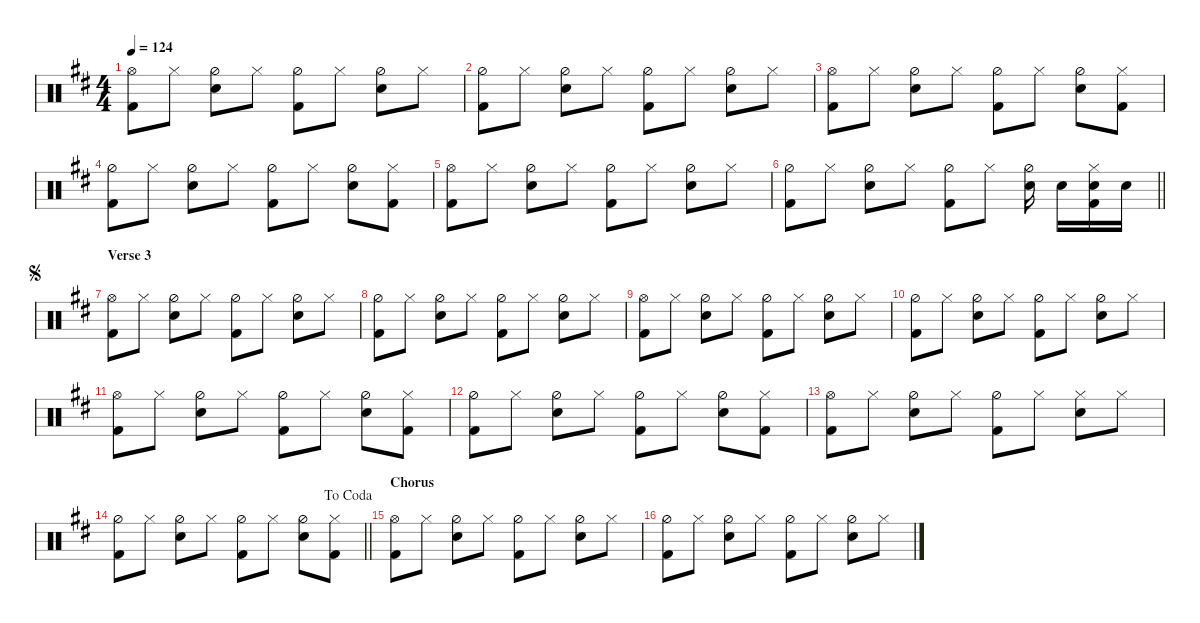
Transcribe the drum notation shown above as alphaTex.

\hideDynamics
\bracketExtendMode nobrackets
\singleTrackTrackNamePolicy hidden
\multiTrackTrackNamePolicy hidden
\otherSystemsTrackNameOrientation horizontal
\track ("Drumkit" "Drums") {instrument percussion}
\staff {score}
\articulation defaults
\ts (4 4)
\tempo 124
\clef neutral
\ks bminor
("Kick (hit) 2"{acc forcenatural} "Hi-Hat (open)"{acc forcenatural}).8{dy f beam Down} "Hi-Hat (closed)"{acc forcenatural}.8{beam Down} ("Hi-Hat (half)"{acc forcenatural} "Snare (hit) 2"{acc forcenatural}).8{beam Down} "Hi-Hat (closed)"{acc forcenatural}.8{beam Down} ("Hi-Hat (half)"{acc forcenatural} "Kick (hit) 2"{acc forcenatural}).8{beam Down} "Hi-Hat (closed)"{acc forcenatural}.8{beam Down} ("Snare (hit) 2"{acc forcenatural} "Hi-Hat (half)"{acc forcenatural}).8{beam Down} "Hi-Hat (closed)"{acc forcenatural}.8{beam Down} |
("Kick (hit) 2"{acc forcenatural} "Hi-Hat (half)"{acc forcenatural}).8{beam Down} "Hi-Hat (closed)"{acc forcenatural}.8{beam Down} ("Hi-Hat (half)"{acc forcenatural} "Snare (hit) 2"{acc forcenatural}).8{beam Down} "Hi-Hat (closed)"{acc forcenatural}.8{beam Down} ("Hi-Hat (half)"{acc forcenatural} "Kick (hit) 2"{acc forcenatural}).8{beam Down} "Hi-Hat (closed)"{acc forcenatural}.8{beam Down} ("Hi-Hat (half)"{acc forcenatural} "Snare (hit) 2"{acc forcenatural}).8{beam Down} "Hi-Hat (closed)"{acc forcenatural}.8{beam Down} |
("Kick (hit) 2"{acc forcenatural} "Hi-Hat (open)"{acc forcenatural}).8{beam Down} "Hi-Hat (closed)"{acc forcenatural}.8{beam Down} ("Hi-Hat (half)"{acc forcenatural} "Snare (hit) 2"{acc forcenatural}).8{beam Down} "Hi-Hat (closed)"{acc forcenatural}.8{beam Down} ("Hi-Hat (half)"{acc forcenatural} "Kick (hit) 2"{acc forcenatural}).8{beam Down} "Hi-Hat (closed)"{acc forcenatural}.8{beam Down} ("Hi-Hat (half)"{acc forcenatural} "Snare (hit) 2"{acc forcenatural}).8{beam Down} ("Hi-Hat (closed)"{acc forcenatural} "Kick (hit) 2"{acc forcenatural}).8{beam Down} |
("Kick (hit) 2"{acc forcenatural} "Hi-Hat (half)"{acc forcenatural}).8{beam Down} "Hi-Hat (closed)"{acc forcenatural}.8{beam Down} ("Hi-Hat (half)"{acc forcenatural} "Snare (hit) 2"{acc forcenatural}).8{beam Down} "Hi-Hat (closed)"{acc forcenatural}.8{beam Down} ("Hi-Hat (half)"{acc forcenatural} "Kick (hit) 2"{acc forcenatural}).8{beam Down} "Hi-Hat (closed)"{acc forcenatural}.8{beam Down} ("Hi-Hat (half)"{acc forcenatural} "Snare (hit) 2"{acc forcenatural}).8{beam Down} ("Hi-Hat (closed)"{acc forcenatural} "Kick (hit) 2"{acc forcenatural}).8{beam Down} |
("Kick (hit) 2"{acc forcenatural} "Hi-Hat (open)"{acc forcenatural}).8{beam Down} "Hi-Hat (closed)"{acc forcenatural}.8{beam Down} ("Hi-Hat (half)"{acc forcenatural} "Snare (hit) 2"{acc forcenatural}).8{beam Down} "Hi-Hat (closed)"{acc forcenatural}.8{beam Down} ("Hi-Hat (half)"{acc forcenatural} "Kick (hit) 2"{acc forcenatural}).8{beam Down} "Hi-Hat (closed)"{acc forcenatural}.8{beam Down} ("Hi-Hat (half)"{acc forcenatural} "Snare (hit) 2"{acc forcenatural}).8{beam Down} "Hi-Hat (closed)"{acc forcenatural}.8{beam Down} |
\barLineRight lightlight
("Kick (hit) 2"{acc forcenatural} "Hi-Hat (half)"{acc forcenatural}).8{beam Down} "Hi-Hat (closed)"{acc forcenatural}.8{beam Down} ("Hi-Hat (half)"{acc forcenatural} "Snare (hit) 2"{acc forcenatural}).8{beam Down} "Hi-Hat (closed)"{acc forcenatural}.8{beam Down} ("Hi-Hat (half)"{acc forcenatural} "Kick (hit) 2"{acc forcenatural}).8{beam Down} "Hi-Hat (closed)"{acc forcenatural}.8{beam Down} ("Snare (hit) 2"{acc forcenatural} "Hi-Hat (half)"{acc forcenatural}).16{beam Down beam split} "Snare (hit) 2"{acc forcenatural}.16{beam Down} ("Hi-Hat (closed)"{acc forcenatural} "Snare (hit) 2"{acc forcenatural} "Kick (hit) 2"{acc forcenatural}).16{beam Down} "Snare (hit) 2"{acc forcenatural}.16{beam Down} |
\section ("" "Verse 3")
\jump segno
("Kick (hit) 2"{acc forcenatural} "Hi-Hat (open)"{acc forcenatural}).8{beam Down} "Hi-Hat (closed)"{acc forcenatural}.8{beam Down} ("Hi-Hat (half)"{acc forcenatural} "Snare (hit) 2"{acc forcenatural}).8{beam Down} "Hi-Hat (closed)"{acc forcenatural}.8{beam Down} ("Hi-Hat (half)"{acc forcenatural} "Kick (hit) 2"{acc forcenatural}).8{beam Down} "Hi-Hat (closed)"{acc forcenatural}.8{beam Down} ("Hi-Hat (half)"{acc forcenatural} "Snare (hit) 2"{acc forcenatural}).8{beam Down} "Hi-Hat (closed)"{acc forcenatural}.8{beam Down} |
("Kick (hit) 2"{acc forcenatural} "Hi-Hat (half)"{acc forcenatural}).8{beam Down} "Hi-Hat (closed)"{acc forcenatural}.8{beam Down} ("Hi-Hat (half)"{acc forcenatural} "Snare (hit) 2"{acc forcenatural}).8{beam Down} "Hi-Hat (closed)"{acc forcenatural}.8{beam Down} ("Hi-Hat (half)"{acc forcenatural} "Kick (hit) 2"{acc forcenatural}).8{beam Down} "Hi-Hat (closed)"{acc forcenatural}.8{beam Down} ("Hi-Hat (half)"{acc forcenatural} "Snare (hit) 2"{acc forcenatural}).8{beam Down} "Hi-Hat (closed)"{acc forcenatural}.8{beam Down} |
("Kick (hit) 2"{acc forcenatural} "Hi-Hat (open)"{acc forcenatural}).8{beam Down} "Hi-Hat (closed)"{acc forcenatural}.8{beam Down} ("Hi-Hat (half)"{acc forcenatural} "Snare (hit) 2"{acc forcenatural}).8{beam Down} "Hi-Hat (closed)"{acc forcenatural}.8{beam Down} ("Hi-Hat (half)"{acc forcenatural} "Kick (hit) 2"{acc forcenatural}).8{beam Down} "Hi-Hat (closed)"{acc forcenatural}.8{beam Down} ("Hi-Hat (half)"{acc forcenatural} "Snare (hit) 2"{acc forcenatural}).8{beam Down} "Hi-Hat (closed)"{acc forcenatural}.8{beam Down} |
("Kick (hit) 2"{acc forcenatural} "Hi-Hat (half)"{acc forcenatural}).8{beam Down} "Hi-Hat (closed)"{acc forcenatural}.8{beam Down} ("Hi-Hat (half)"{acc forcenatural} "Snare (hit) 2"{acc forcenatural}).8{beam Down} "Hi-Hat (closed)"{acc forcenatural}.8{beam Down} ("Hi-Hat (half)"{acc forcenatural} "Kick (hit) 2"{acc forcenatural}).8{beam Down} "Hi-Hat (closed)"{acc forcenatural}.8{beam Down} ("Hi-Hat (half)"{acc forcenatural} "Snare (hit) 2"{acc forcenatural}).8{beam Down} "Hi-Hat (closed)"{acc forcenatural}.8{beam Down} |
("Kick (hit) 2"{acc forcenatural} "Hi-Hat (open)"{acc forcenatural}).8{beam Down} "Hi-Hat (closed)"{acc forcenatural}.8{beam Down} ("Hi-Hat (half)"{acc forcenatural} "Snare (hit) 2"{acc forcenatural}).8{beam Down} "Hi-Hat (closed)"{acc forcenatural}.8{beam Down} ("Hi-Hat (half)"{acc forcenatural} "Kick (hit) 2"{acc forcenatural}).8{beam Down} "Hi-Hat (closed)"{acc forcenatural}.8{beam Down} ("Hi-Hat (half)"{acc forcenatural} "Snare (hit) 2"{acc forcenatural}).8{beam Down} ("Hi-Hat (closed)"{acc forcenatural} "Kick (hit) 2"{acc forcenatural}).8{beam Down} |
("Kick (hit) 2"{acc forcenatural} "Hi-Hat (half)"{acc forcenatural}).8{beam Down} "Hi-Hat (closed)"{acc forcenatural}.8{beam Down} ("Hi-Hat (half)"{acc forcenatural} "Snare (hit) 2"{acc forcenatural}).8{beam Down} "Hi-Hat (closed)"{acc forcenatural}.8{beam Down} ("Hi-Hat (half)"{acc forcenatural} "Kick (hit) 2"{acc forcenatural}).8{beam Down} "Hi-Hat (closed)"{acc forcenatural}.8{beam Down} ("Hi-Hat (half)"{acc forcenatural} "Snare (hit) 2"{acc forcenatural}).8{beam Down} ("Hi-Hat (closed)"{acc forcenatural} "Kick (hit) 2"{acc forcenatural}).8{beam Down} |
("Kick (hit) 2"{acc forcenatural} "Hi-Hat (open)"{acc forcenatural}).8{beam Down} "Hi-Hat (closed)"{acc forcenatural}.8{beam Down} ("Hi-Hat (half)"{acc forcenatural} "Snare (hit) 2"{acc forcenatural}).8{beam Down} "Hi-Hat (closed)"{acc forcenatural}.8{beam Down} ("Hi-Hat (half)"{acc forcenatural} "Kick (hit) 2"{acc forcenatural}).8{beam Down} "Hi-Hat (closed)"{acc forcenatural}.8{beam Down} ("Hi-Hat (closed)"{acc forcenatural} "Snare (hit) 2"{acc forcenatural}).8{beam Down} "Hi-Hat (closed)"{acc forcenatural}.8{beam Down} |
\jump dacoda
\barLineRight lightlight
("Kick (hit) 2"{acc forcenatural} "Hi-Hat (half)"{acc forcenatural}).8{beam Down} "Hi-Hat (closed)"{acc forcenatural}.8{beam Down} ("Hi-Hat (half)"{acc forcenatural} "Snare (hit) 2"{acc forcenatural}).8{beam Down} "Hi-Hat (closed)"{acc forcenatural}.8{beam Down} ("Hi-Hat (half)"{acc forcenatural} "Kick (hit) 2"{acc forcenatural}).8{beam Down} "Hi-Hat (closed)"{acc forcenatural}.8{beam Down} ("Hi-Hat (half)"{acc forcenatural} "Snare (hit) 2"{acc forcenatural}).8{beam Down} ("Hi-Hat (closed)"{acc forcenatural} "Kick (hit) 2"{acc forcenatural}).8{beam Down} |
\section ("" "Chorus")
("Kick (hit) 2"{acc forcenatural} "Hi-Hat (open)"{acc forcenatural}).8{beam Down} "Hi-Hat (closed)"{acc forcenatural}.8{beam Down} ("Hi-Hat (half)"{acc forcenatural} "Snare (hit) 2"{acc forcenatural}).8{beam Down} "Hi-Hat (closed)"{acc forcenatural}.8{beam Down} ("Hi-Hat (half)"{acc forcenatural} "Kick (hit) 2"{acc forcenatural}).8{beam Down} "Hi-Hat (closed)"{acc forcenatural}.8{beam Down} ("Hi-Hat (half)"{acc forcenatural} "Snare (hit) 2"{acc forcenatural}).8{beam Down} "Hi-Hat (closed)"{acc forcenatural}.8{beam Down} |
("Kick (hit) 2"{acc forcenatural} "Hi-Hat (half)"{acc forcenatural}).8{beam Down} "Hi-Hat (closed)"{acc forcenatural}.8{beam Down} ("Hi-Hat (half)"{acc forcenatural} "Snare (hit) 2"{acc forcenatural}).8{beam Down} "Hi-Hat (closed)"{acc forcenatural}.8{beam Down} ("Hi-Hat (half)"{acc forcenatural} "Kick (hit) 2"{acc forcenatural}).8{beam Down} "Hi-Hat (closed)"{acc forcenatural}.8{beam Down} ("Hi-Hat (half)"{acc forcenatural} "Snare (hit) 2"{acc forcenatural}).8{beam Down} "Hi-Hat (closed)"{acc forcenatural}.8{beam Down}
